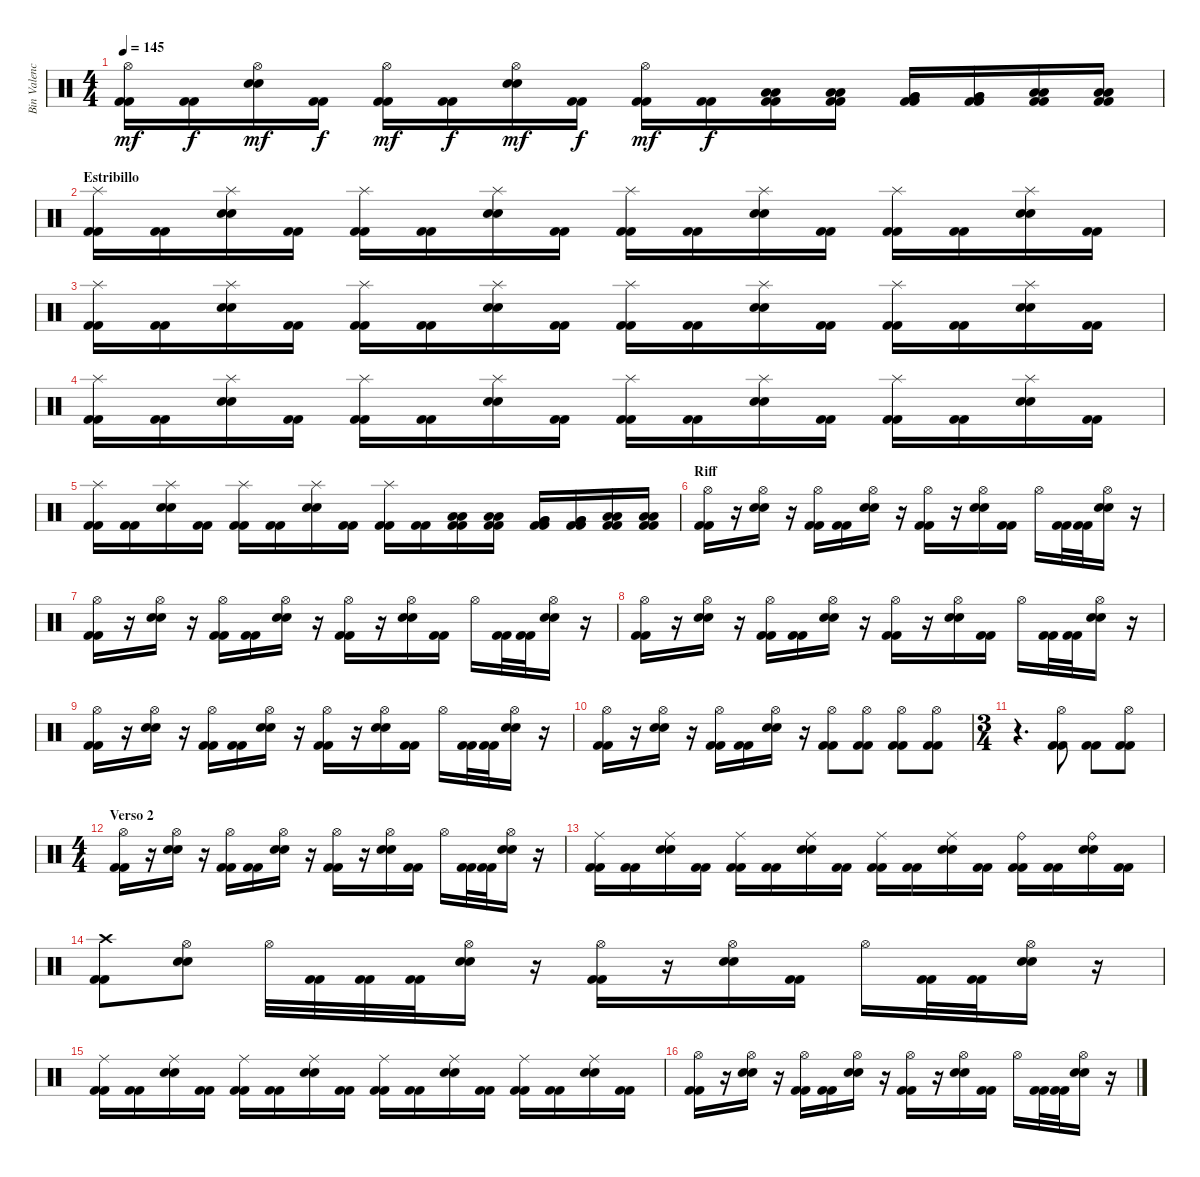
\track ("Bin Valencia (Bateria)" "Bin Valenc") {instrument percussion}
\staff {score}
\articulation defaults
\ts (4 4)
\tempo 145
\clef neutral
\ks c
("Hi-Hat (open)" "Kick (hit) 2" "Kick (hit) 2").16{dy mf} ("Kick (hit) 2" "Kick (hit) 2").16{dy f} ("Hi-Hat (open)" "Snare (hit) 2" "Snare (hit) 2").16{dy mf} ("Kick (hit) 2" "Kick (hit) 2").16{dy f} ("Hi-Hat (open)" "Kick (hit) 2" "Kick (hit) 2").16{dy mf} ("Kick (hit) 2" "Kick (hit) 2").16{dy f} ("Hi-Hat (open)" "Snare (hit) 2" "Snare (hit) 2").16{dy mf} ("Kick (hit) 2" "Kick (hit) 2").16{dy f} ("Hi-Hat (open)" "Kick (hit) 2" "Kick (hit) 2").16{dy mf} ("Kick (hit) 2" "Kick (hit) 2").16{dy f} ("Kick (hit) 2" "Kick (hit) 2" "Low Tom (hit)" "Low Tom (hit)").16 ("Kick (hit) 2" "Kick (hit) 2" "Low Tom (hit)" "Low Tom (hit)").16 ("Kick (hit) 2" "Kick (hit) 2" "Very Low Tom (hit)" "Very Low Tom (hit)").16 ("Kick (hit) 2" "Kick (hit) 2" "Very Low Tom (hit)" "Very Low Tom (hit)").16 ("Kick (hit) 2" "Kick (hit) 2" "Low Floor Tom (hit)" "Low Floor Tom (hit)").16 ("Kick (hit) 2" "Kick (hit) 2" "Low Floor Tom (hit)" "Low Floor Tom (hit)").16 |
\section ("" "Estribillo")
("Splash (hit)" "Kick (hit) 2" "Kick (hit) 2").16 ("Kick (hit) 2" "Kick (hit) 2").16 ("Splash (hit)" "Snare (hit) 2" "Snare (hit) 2").16 ("Kick (hit) 2" "Kick (hit) 2").16 ("Splash (hit)" "Kick (hit) 2" "Kick (hit) 2").16 ("Kick (hit) 2" "Kick (hit) 2").16 ("Splash (hit)" "Snare (hit) 2" "Snare (hit) 2").16 ("Kick (hit) 2" "Kick (hit) 2").16 ("Splash (hit)" "Kick (hit) 2" "Kick (hit) 2").16 ("Kick (hit) 2" "Kick (hit) 2").16 ("Splash (hit)" "Snare (hit) 2" "Snare (hit) 2").16 ("Kick (hit) 2" "Kick (hit) 2").16 ("Splash (hit)" "Kick (hit) 2" "Kick (hit) 2").16 ("Kick (hit) 2" "Kick (hit) 2").16 ("Splash (hit)" "Snare (hit) 2" "Snare (hit) 2").16 ("Kick (hit) 2" "Kick (hit) 2").16 |
("Splash (hit)" "Kick (hit) 2" "Kick (hit) 2").16 ("Kick (hit) 2" "Kick (hit) 2").16 ("Splash (hit)" "Snare (hit) 2" "Snare (hit) 2").16 ("Kick (hit) 2" "Kick (hit) 2").16 ("Splash (hit)" "Kick (hit) 2" "Kick (hit) 2").16 ("Kick (hit) 2" "Kick (hit) 2").16 ("Splash (hit)" "Snare (hit) 2" "Snare (hit) 2").16 ("Kick (hit) 2" "Kick (hit) 2").16 ("Splash (hit)" "Kick (hit) 2" "Kick (hit) 2").16 ("Kick (hit) 2" "Kick (hit) 2").16 ("Splash (hit)" "Snare (hit) 2" "Snare (hit) 2").16 ("Kick (hit) 2" "Kick (hit) 2").16 ("Splash (hit)" "Kick (hit) 2" "Kick (hit) 2").16 ("Kick (hit) 2" "Kick (hit) 2").16 ("Splash (hit)" "Snare (hit) 2" "Snare (hit) 2").16 ("Kick (hit) 2" "Kick (hit) 2").16 |
("Splash (hit)" "Kick (hit) 2" "Kick (hit) 2").16 ("Kick (hit) 2" "Kick (hit) 2").16 ("Splash (hit)" "Snare (hit) 2" "Snare (hit) 2").16 ("Kick (hit) 2" "Kick (hit) 2").16 ("Splash (hit)" "Kick (hit) 2" "Kick (hit) 2").16 ("Kick (hit) 2" "Kick (hit) 2").16 ("Splash (hit)" "Snare (hit) 2" "Snare (hit) 2").16 ("Kick (hit) 2" "Kick (hit) 2").16 ("Splash (hit)" "Kick (hit) 2" "Kick (hit) 2").16 ("Kick (hit) 2" "Kick (hit) 2").16 ("Splash (hit)" "Snare (hit) 2" "Snare (hit) 2").16 ("Kick (hit) 2" "Kick (hit) 2").16 ("Splash (hit)" "Kick (hit) 2" "Kick (hit) 2").16 ("Kick (hit) 2" "Kick (hit) 2").16 ("Splash (hit)" "Snare (hit) 2" "Snare (hit) 2").16 ("Kick (hit) 2" "Kick (hit) 2").16 |
("Splash (hit)" "Kick (hit) 2" "Kick (hit) 2").16 ("Kick (hit) 2" "Kick (hit) 2").16 ("Splash (hit)" "Snare (hit) 2" "Snare (hit) 2").16 ("Kick (hit) 2" "Kick (hit) 2").16 ("Splash (hit)" "Kick (hit) 2" "Kick (hit) 2").16 ("Kick (hit) 2" "Kick (hit) 2").16 ("Splash (hit)" "Snare (hit) 2" "Snare (hit) 2").16 ("Kick (hit) 2" "Kick (hit) 2").16 ("Splash (hit)" "Kick (hit) 2" "Kick (hit) 2").16 ("Kick (hit) 2" "Kick (hit) 2").16 ("Kick (hit) 2" "Kick (hit) 2" "Low Tom (hit)" "Low Tom (hit)").16 ("Kick (hit) 2" "Kick (hit) 2" "Low Tom (hit)" "Low Tom (hit)").16 ("Kick (hit) 2" "Kick (hit) 2" "Very Low Tom (hit)" "Very Low Tom (hit)").16 ("Kick (hit) 2" "Kick (hit) 2" "Very Low Tom (hit)" "Very Low Tom (hit)").16 ("Kick (hit) 2" "Kick (hit) 2" "Low Floor Tom (hit)" "Low Floor Tom (hit)").16 ("Kick (hit) 2" "Kick (hit) 2" "Low Floor Tom (hit)" "Low Floor Tom (hit)").16 |
\section ("" "Riff")
("Hi-Hat (open)" "Kick (hit) 2" "Kick (hit) 2").16 r.16 ("Hi-Hat (open)" "Snare (hit) 2" "Snare (hit) 2").16 r.16 ("Hi-Hat (open)" "Kick (hit) 2" "Kick (hit) 2").16 ("Kick (hit) 2" "Kick (hit) 2").16 ("Hi-Hat (open)" "Snare (hit) 2" "Snare (hit) 2").16 r.16 ("Hi-Hat (open)" "Kick (hit) 2" "Kick (hit) 2").16 r.16 ("Hi-Hat (open)" "Snare (hit) 2" "Snare (hit) 2").16 ("Kick (hit) 2" "Kick (hit) 2").16 "Hi-Hat (open)".16 ("Kick (hit) 2" "Kick (hit) 2").32 ("Kick (hit) 2" "Kick (hit) 2").32 ("Hi-Hat (open)" "Snare (hit) 2" "Snare (hit) 2").16 r.16 |
("Hi-Hat (open)" "Kick (hit) 2" "Kick (hit) 2").16 r.16 ("Hi-Hat (open)" "Snare (hit) 2" "Snare (hit) 2").16 r.16 ("Hi-Hat (open)" "Kick (hit) 2" "Kick (hit) 2").16 ("Kick (hit) 2" "Kick (hit) 2").16 ("Hi-Hat (open)" "Snare (hit) 2" "Snare (hit) 2").16 r.16 ("Hi-Hat (open)" "Kick (hit) 2" "Kick (hit) 2").16 r.16 ("Hi-Hat (open)" "Snare (hit) 2" "Snare (hit) 2").16 ("Kick (hit) 2" "Kick (hit) 2").16 "Hi-Hat (open)".16 ("Kick (hit) 2" "Kick (hit) 2").32 ("Kick (hit) 2" "Kick (hit) 2").32 ("Hi-Hat (open)" "Snare (hit) 2" "Snare (hit) 2").16 r.16 |
("Hi-Hat (open)" "Kick (hit) 2" "Kick (hit) 2").16 r.16 ("Hi-Hat (open)" "Snare (hit) 2" "Snare (hit) 2").16 r.16 ("Hi-Hat (open)" "Kick (hit) 2" "Kick (hit) 2").16 ("Kick (hit) 2" "Kick (hit) 2").16 ("Hi-Hat (open)" "Snare (hit) 2" "Snare (hit) 2").16 r.16 ("Hi-Hat (open)" "Kick (hit) 2" "Kick (hit) 2").16 r.16 ("Hi-Hat (open)" "Snare (hit) 2" "Snare (hit) 2").16 ("Kick (hit) 2" "Kick (hit) 2").16 "Hi-Hat (open)".16 ("Kick (hit) 2" "Kick (hit) 2").32 ("Kick (hit) 2" "Kick (hit) 2").32 ("Hi-Hat (open)" "Snare (hit) 2" "Snare (hit) 2").16 r.16 |
("Hi-Hat (open)" "Kick (hit) 2" "Kick (hit) 2").16 r.16 ("Hi-Hat (open)" "Snare (hit) 2" "Snare (hit) 2").16 r.16 ("Hi-Hat (open)" "Kick (hit) 2" "Kick (hit) 2").16 ("Kick (hit) 2" "Kick (hit) 2").16 ("Hi-Hat (open)" "Snare (hit) 2" "Snare (hit) 2").16 r.16 ("Hi-Hat (open)" "Kick (hit) 2" "Kick (hit) 2").16 r.16 ("Hi-Hat (open)" "Snare (hit) 2" "Snare (hit) 2").16 ("Kick (hit) 2" "Kick (hit) 2").16 "Hi-Hat (open)".16 ("Kick (hit) 2" "Kick (hit) 2").32 ("Kick (hit) 2" "Kick (hit) 2").32 ("Hi-Hat (open)" "Snare (hit) 2" "Snare (hit) 2").16 r.16 |
("Hi-Hat (open)" "Kick (hit) 2" "Kick (hit) 2").16 r.16 ("Hi-Hat (open)" "Snare (hit) 2" "Snare (hit) 2").16 r.16 ("Hi-Hat (open)" "Kick (hit) 2" "Kick (hit) 2").16 ("Kick (hit) 2" "Kick (hit) 2").16 ("Hi-Hat (open)" "Snare (hit) 2" "Snare (hit) 2").16 r.16 ("Hi-Hat (open)" "Kick (hit) 2" "Kick (hit) 2").8 ("Hi-Hat (open)" "Kick (hit) 2" "Kick (hit) 2").8 ("Hi-Hat (open)" "Kick (hit) 2" "Kick (hit) 2").8 ("Hi-Hat (open)" "Kick (hit) 2" "Kick (hit) 2").8 |
\ts (3 4)
r.4{d} ("Hi-Hat (open)" "Kick (hit) 2" "Kick (hit) 2").8 ("Kick (hit) 2" "Kick (hit) 2").8 ("Hi-Hat (open)" "Kick (hit) 2" "Kick (hit) 2").8 |
\ts (4 4)
\section ("" "Verso 2")
("Hi-Hat (open)" "Kick (hit) 2" "Kick (hit) 2").16 r.16 ("Hi-Hat (open)" "Snare (hit) 2" "Snare (hit) 2").16 r.16 ("Hi-Hat (open)" "Kick (hit) 2" "Kick (hit) 2").16 ("Kick (hit) 2" "Kick (hit) 2").16 ("Hi-Hat (open)" "Snare (hit) 2" "Snare (hit) 2").16 r.16 ("Hi-Hat (open)" "Kick (hit) 2" "Kick (hit) 2").16 r.16 ("Hi-Hat (open)" "Snare (hit) 2" "Snare (hit) 2").16 ("Kick (hit) 2" "Kick (hit) 2").16 "Hi-Hat (open)".16 ("Kick (hit) 2" "Kick (hit) 2").32 ("Kick (hit) 2" "Kick (hit) 2").32 ("Hi-Hat (open)" "Snare (hit) 2" "Snare (hit) 2").16 r.16 |
("Ride (middle)" "Kick (hit) 2" "Kick (hit) 2").16 ("Kick (hit) 2" "Kick (hit) 2").16 ("Ride (middle)" "Snare (hit) 2" "Snare (hit) 2").16 ("Kick (hit) 2" "Kick (hit) 2").16 ("Ride (middle)" "Kick (hit) 2" "Kick (hit) 2").16 ("Kick (hit) 2" "Kick (hit) 2").16 ("Ride (middle)" "Snare (hit) 2" "Snare (hit) 2").16 ("Kick (hit) 2" "Kick (hit) 2").16 ("Ride (middle)" "Kick (hit) 2" "Kick (hit) 2").16 ("Kick (hit) 2" "Kick (hit) 2").16 ("Ride (middle)" "Snare (hit) 2" "Snare (hit) 2").16 ("Kick (hit) 2" "Kick (hit) 2").16 ("Ride (bell)" "Kick (hit) 2" "Kick (hit) 2").16 ("Kick (hit) 2" "Kick (hit) 2").16 ("Ride (bell)" "Snare (hit) 2" "Snare (hit) 2").16 ("Kick (hit) 2" "Kick (hit) 2").16 |
("Crash high (hit)" "Kick (hit) 2" "Kick (hit) 2").8 ("Hi-Hat (open)" "Snare (hit) 2" "Snare (hit) 2").8 "Hi-Hat (open)".32 ("Kick (hit) 2" "Kick (hit) 2").32 ("Kick (hit) 2" "Kick (hit) 2").32 ("Kick (hit) 2" "Kick (hit) 2").32 ("Hi-Hat (open)" "Snare (hit) 2" "Snare (hit) 2").16 r.16 ("Hi-Hat (open)" "Kick (hit) 2" "Kick (hit) 2").16 r.16 ("Hi-Hat (open)" "Snare (hit) 2" "Snare (hit) 2").16 ("Kick (hit) 2" "Kick (hit) 2").16 "Hi-Hat (open)".16 ("Kick (hit) 2" "Kick (hit) 2").32 ("Kick (hit) 2" "Kick (hit) 2").32 ("Hi-Hat (open)" "Snare (hit) 2" "Snare (hit) 2").16 r.16 |
("Ride (middle)" "Kick (hit) 2" "Kick (hit) 2").16 ("Kick (hit) 2" "Kick (hit) 2").16 ("Ride (middle)" "Snare (hit) 2" "Snare (hit) 2").16 ("Kick (hit) 2" "Kick (hit) 2").16 ("Ride (middle)" "Kick (hit) 2" "Kick (hit) 2").16 ("Kick (hit) 2" "Kick (hit) 2").16 ("Ride (middle)" "Snare (hit) 2" "Snare (hit) 2").16 ("Kick (hit) 2" "Kick (hit) 2").16 ("Ride (middle)" "Kick (hit) 2" "Kick (hit) 2").16 ("Kick (hit) 2" "Kick (hit) 2").16 ("Ride (middle)" "Snare (hit) 2" "Snare (hit) 2").16 ("Kick (hit) 2" "Kick (hit) 2").16 ("Ride (middle)" "Kick (hit) 2" "Kick (hit) 2").16 ("Kick (hit) 2" "Kick (hit) 2").16 ("Ride (middle)" "Snare (hit) 2" "Snare (hit) 2").16 ("Kick (hit) 2" "Kick (hit) 2").16 |
("Hi-Hat (open)" "Kick (hit) 2" "Kick (hit) 2").16 r.16 ("Hi-Hat (open)" "Snare (hit) 2" "Snare (hit) 2").16 r.16 ("Hi-Hat (open)" "Kick (hit) 2" "Kick (hit) 2").16 ("Kick (hit) 2" "Kick (hit) 2").16 ("Hi-Hat (open)" "Snare (hit) 2" "Snare (hit) 2").16 r.16 ("Hi-Hat (open)" "Kick (hit) 2" "Kick (hit) 2").16 r.16 ("Hi-Hat (open)" "Snare (hit) 2" "Snare (hit) 2").16 ("Kick (hit) 2" "Kick (hit) 2").16 "Hi-Hat (open)".16 ("Kick (hit) 2" "Kick (hit) 2").32 ("Kick (hit) 2" "Kick (hit) 2").32 ("Hi-Hat (open)" "Snare (hit) 2" "Snare (hit) 2").16 r.16
